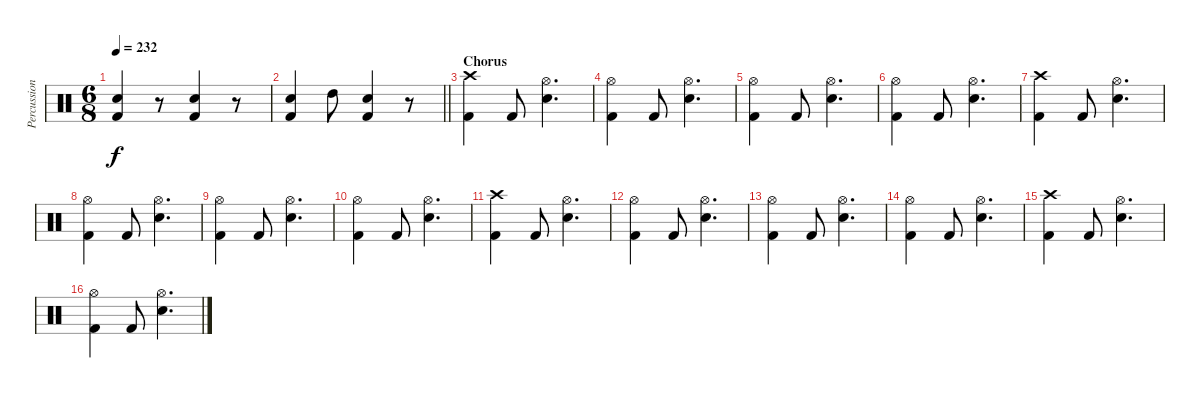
\track ("Percussion" "Percussion") {instrument percussion}
\staff {score}
\articulation defaults
\ts (6 8)
\tempo 232
\clef neutral
\ks c
("Electric Snare (hit)" "Kick (hit) 2").4{dy f} r.8 ("Electric Snare (hit)" "Kick (hit) 2").4 r.8 |
\barLineRight lightlight
("Electric Snare (hit)" "Kick (hit) 2").4 "High Tom (hit)".8 ("Electric Snare (hit)" "Kick (hit) 2").4 r.8 |
\section ("" "Chorus")
("Crash high (hit)" "Kick (hit) 2").4 "Kick (hit) 2".8 ("Hi-Hat (open)" "Electric Snare (hit)").4{d} |
("Hi-Hat (open)" "Kick (hit) 2").4 "Kick (hit) 2".8 ("Hi-Hat (open)" "Electric Snare (hit)").4{d} |
("Hi-Hat (open)" "Kick (hit) 2").4 "Kick (hit) 2".8 ("Hi-Hat (open)" "Electric Snare (hit)").4{d} |
("Hi-Hat (open)" "Kick (hit) 2").4 "Kick (hit) 2".8 ("Hi-Hat (open)" "Electric Snare (hit)").4{d} |
("Crash high (hit)" "Kick (hit) 2").4 "Kick (hit) 2".8 ("Hi-Hat (open)" "Electric Snare (hit)").4{d} |
("Hi-Hat (open)" "Kick (hit) 2").4 "Kick (hit) 2".8 ("Hi-Hat (open)" "Electric Snare (hit)").4{d} |
("Hi-Hat (open)" "Kick (hit) 2").4 "Kick (hit) 2".8 ("Hi-Hat (open)" "Electric Snare (hit)").4{d} |
("Hi-Hat (open)" "Kick (hit) 2").4 "Kick (hit) 2".8 ("Hi-Hat (open)" "Electric Snare (hit)").4{d} |
("Crash high (hit)" "Kick (hit) 2").4 "Kick (hit) 2".8 ("Hi-Hat (open)" "Electric Snare (hit)").4{d} |
("Hi-Hat (open)" "Kick (hit) 2").4 "Kick (hit) 2".8 ("Hi-Hat (open)" "Electric Snare (hit)").4{d} |
("Hi-Hat (open)" "Kick (hit) 2").4 "Kick (hit) 2".8 ("Hi-Hat (open)" "Electric Snare (hit)").4{d} |
("Hi-Hat (open)" "Kick (hit) 2").4 "Kick (hit) 2".8 ("Hi-Hat (open)" "Electric Snare (hit)").4{d} |
("Crash high (hit)" "Kick (hit) 2").4 "Kick (hit) 2".8 ("Hi-Hat (open)" "Electric Snare (hit)").4{d} |
("Hi-Hat (open)" "Kick (hit) 2").4 "Kick (hit) 2".8 ("Hi-Hat (open)" "Electric Snare (hit)").4{d}
